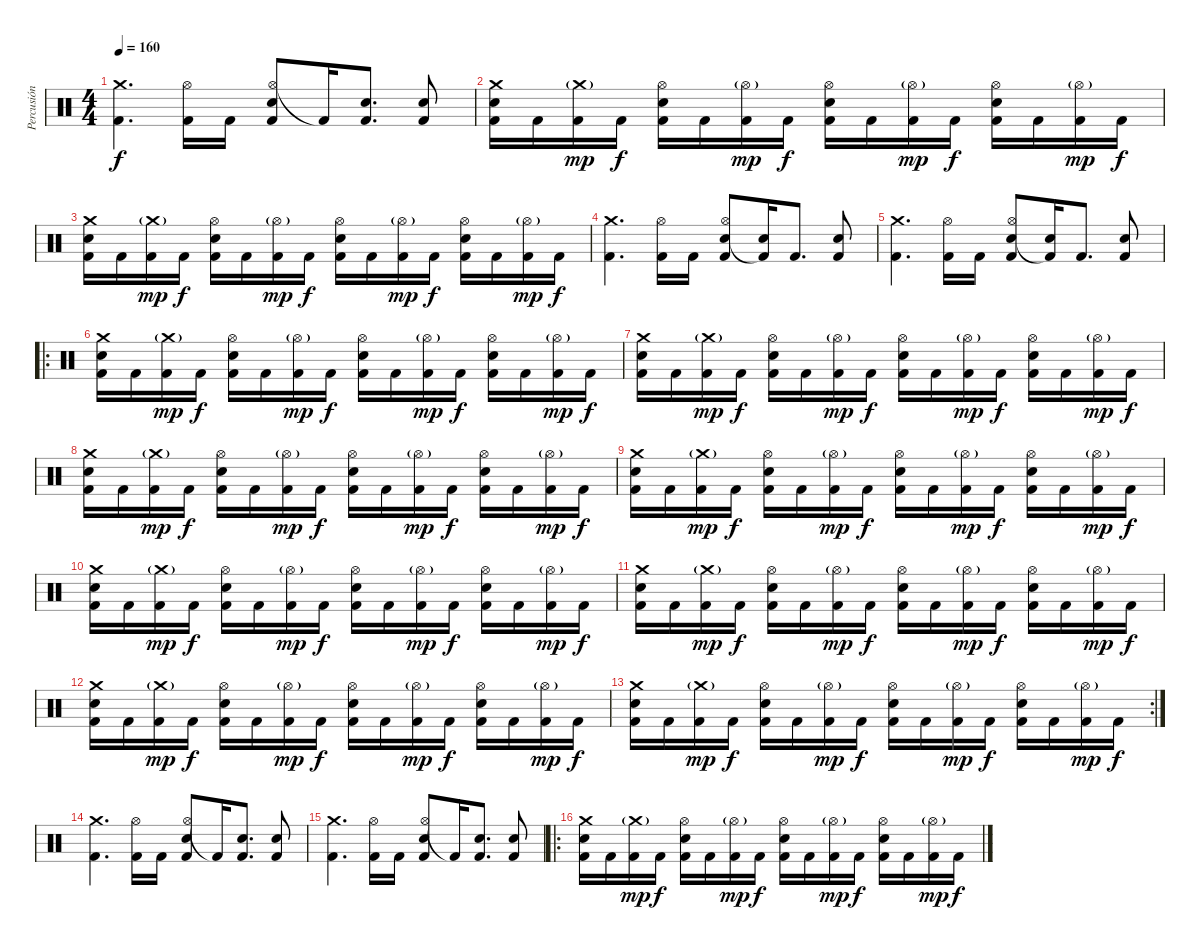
\track ("Percusión" "Percusión") {instrument percussion}
\staff {score}
\articulation defaults
\ts (4 4)
\tempo 160
\clef neutral
\ks c
("Crash medium (hit)" "Kick (hit) 2").4{d dy f} ("Hi-Hat (open)" "Kick (hit) 2").16 "Kick (hit) 2".16 ("Hi-Hat (open)" "Electric Snare (hit)" "Kick (hit) 2").8 "Kick (hit) 2"{t}.16 ("Snare (hit) 2" "Kick (hit) 2").8{d} ("Snare (hit) 2" "Kick (hit) 2").8 |
("Crash medium (hit)" "Electric Snare (hit)" "Kick (hit) 2").16 "Kick (hit) 2".16 ("Crash medium (hit)"{g} "Kick (hit) 2").16{dy mp} "Kick (hit) 2".16{dy f} ("Hi-Hat (open)" "Electric Snare (hit)" "Kick (hit) 2").16 "Kick (hit) 2".16 ("Hi-Hat (open)"{g} "Kick (hit) 2").16{dy mp} "Kick (hit) 2".16{dy f} ("Hi-Hat (open)" "Electric Snare (hit)" "Kick (hit) 2").16 "Kick (hit) 2".16 ("Hi-Hat (open)"{g} "Kick (hit) 2").16{dy mp} "Kick (hit) 2".16{dy f} ("Hi-Hat (open)" "Electric Snare (hit)" "Kick (hit) 2").16 "Kick (hit) 2".16 ("Hi-Hat (open)"{g} "Kick (hit) 2").16{dy mp} "Kick (hit) 2".16{dy f} |
("Crash medium (hit)" "Electric Snare (hit)" "Kick (hit) 2").16 "Kick (hit) 2".16 ("Crash medium (hit)"{g} "Kick (hit) 2").16{dy mp} "Kick (hit) 2".16{dy f} ("Hi-Hat (open)" "Electric Snare (hit)" "Kick (hit) 2").16 "Kick (hit) 2".16 ("Hi-Hat (open)"{g} "Kick (hit) 2").16{dy mp} "Kick (hit) 2".16{dy f} ("Hi-Hat (open)" "Electric Snare (hit)" "Kick (hit) 2").16 "Kick (hit) 2".16 ("Hi-Hat (open)"{g} "Kick (hit) 2").16{dy mp} "Kick (hit) 2".16{dy f} ("Hi-Hat (open)" "Electric Snare (hit)" "Kick (hit) 2").16 "Kick (hit) 2".16 ("Hi-Hat (open)"{g} "Kick (hit) 2").16{dy mp} "Kick (hit) 2".16{dy f} |
("Crash medium (hit)" "Kick (hit) 2").4{d} ("Hi-Hat (open)" "Kick (hit) 2").16 "Kick (hit) 2".16 ("Hi-Hat (open)" "Electric Snare (hit)" "Kick (hit) 2").8 ("Electric Snare (hit)" "Kick (hit) 2"{t}).16 "Kick (hit) 2".8{d} ("Snare (hit) 2" "Kick (hit) 2").8 |
("Crash medium (hit)" "Kick (hit) 2").4{d} ("Hi-Hat (open)" "Kick (hit) 2").16 "Kick (hit) 2".16 ("Hi-Hat (open)" "Electric Snare (hit)" "Kick (hit) 2").8 ("Electric Snare (hit)" "Kick (hit) 2"{t}).16 "Kick (hit) 2".8{d} ("Snare (hit) 2" "Kick (hit) 2").8 |
\ro
("Crash medium (hit)" "Electric Snare (hit)" "Kick (hit) 2").16 "Kick (hit) 2".16 ("Crash medium (hit)"{g} "Kick (hit) 2").16{dy mp} "Kick (hit) 2".16{dy f} ("Hi-Hat (open)" "Electric Snare (hit)" "Kick (hit) 2").16 "Kick (hit) 2".16 ("Hi-Hat (open)"{g} "Kick (hit) 2").16{dy mp} "Kick (hit) 2".16{dy f} ("Hi-Hat (open)" "Electric Snare (hit)" "Kick (hit) 2").16 "Kick (hit) 2".16 ("Hi-Hat (open)"{g} "Kick (hit) 2").16{dy mp} "Kick (hit) 2".16{dy f} ("Hi-Hat (open)" "Electric Snare (hit)" "Kick (hit) 2").16 "Kick (hit) 2".16 ("Hi-Hat (open)"{g} "Kick (hit) 2").16{dy mp} "Kick (hit) 2".16{dy f} |
("Crash medium (hit)" "Electric Snare (hit)" "Kick (hit) 2").16 "Kick (hit) 2".16 ("Crash medium (hit)"{g} "Kick (hit) 2").16{dy mp} "Kick (hit) 2".16{dy f} ("Hi-Hat (open)" "Electric Snare (hit)" "Kick (hit) 2").16 "Kick (hit) 2".16 ("Hi-Hat (open)"{g} "Kick (hit) 2").16{dy mp} "Kick (hit) 2".16{dy f} ("Hi-Hat (open)" "Electric Snare (hit)" "Kick (hit) 2").16 "Kick (hit) 2".16 ("Hi-Hat (open)"{g} "Kick (hit) 2").16{dy mp} "Kick (hit) 2".16{dy f} ("Hi-Hat (open)" "Electric Snare (hit)" "Kick (hit) 2").16 "Kick (hit) 2".16 ("Hi-Hat (open)"{g} "Kick (hit) 2").16{dy mp} "Kick (hit) 2".16{dy f} |
("Crash medium (hit)" "Electric Snare (hit)" "Kick (hit) 2").16 "Kick (hit) 2".16 ("Crash medium (hit)"{g} "Kick (hit) 2").16{dy mp} "Kick (hit) 2".16{dy f} ("Hi-Hat (open)" "Electric Snare (hit)" "Kick (hit) 2").16 "Kick (hit) 2".16 ("Hi-Hat (open)"{g} "Kick (hit) 2").16{dy mp} "Kick (hit) 2".16{dy f} ("Hi-Hat (open)" "Electric Snare (hit)" "Kick (hit) 2").16 "Kick (hit) 2".16 ("Hi-Hat (open)"{g} "Kick (hit) 2").16{dy mp} "Kick (hit) 2".16{dy f} ("Hi-Hat (open)" "Electric Snare (hit)" "Kick (hit) 2").16 "Kick (hit) 2".16 ("Hi-Hat (open)"{g} "Kick (hit) 2").16{dy mp} "Kick (hit) 2".16{dy f} |
("Crash medium (hit)" "Electric Snare (hit)" "Kick (hit) 2").16 "Kick (hit) 2".16 ("Crash medium (hit)"{g} "Kick (hit) 2").16{dy mp} "Kick (hit) 2".16{dy f} ("Hi-Hat (open)" "Electric Snare (hit)" "Kick (hit) 2").16 "Kick (hit) 2".16 ("Hi-Hat (open)"{g} "Kick (hit) 2").16{dy mp} "Kick (hit) 2".16{dy f} ("Hi-Hat (open)" "Electric Snare (hit)" "Kick (hit) 2").16 "Kick (hit) 2".16 ("Hi-Hat (open)"{g} "Kick (hit) 2").16{dy mp} "Kick (hit) 2".16{dy f} ("Hi-Hat (open)" "Electric Snare (hit)" "Kick (hit) 2").16 "Kick (hit) 2".16 ("Hi-Hat (open)"{g} "Kick (hit) 2").16{dy mp} "Kick (hit) 2".16{dy f} |
("Crash medium (hit)" "Electric Snare (hit)" "Kick (hit) 2").16 "Kick (hit) 2".16 ("Crash medium (hit)"{g} "Kick (hit) 2").16{dy mp} "Kick (hit) 2".16{dy f} ("Hi-Hat (open)" "Electric Snare (hit)" "Kick (hit) 2").16 "Kick (hit) 2".16 ("Hi-Hat (open)"{g} "Kick (hit) 2").16{dy mp} "Kick (hit) 2".16{dy f} ("Hi-Hat (open)" "Electric Snare (hit)" "Kick (hit) 2").16 "Kick (hit) 2".16 ("Hi-Hat (open)"{g} "Kick (hit) 2").16{dy mp} "Kick (hit) 2".16{dy f} ("Hi-Hat (open)" "Electric Snare (hit)" "Kick (hit) 2").16 "Kick (hit) 2".16 ("Hi-Hat (open)"{g} "Kick (hit) 2").16{dy mp} "Kick (hit) 2".16{dy f} |
("Crash medium (hit)" "Electric Snare (hit)" "Kick (hit) 2").16 "Kick (hit) 2".16 ("Crash medium (hit)"{g} "Kick (hit) 2").16{dy mp} "Kick (hit) 2".16{dy f} ("Hi-Hat (open)" "Electric Snare (hit)" "Kick (hit) 2").16 "Kick (hit) 2".16 ("Hi-Hat (open)"{g} "Kick (hit) 2").16{dy mp} "Kick (hit) 2".16{dy f} ("Hi-Hat (open)" "Electric Snare (hit)" "Kick (hit) 2").16 "Kick (hit) 2".16 ("Hi-Hat (open)"{g} "Kick (hit) 2").16{dy mp} "Kick (hit) 2".16{dy f} ("Hi-Hat (open)" "Electric Snare (hit)" "Kick (hit) 2").16 "Kick (hit) 2".16 ("Hi-Hat (open)"{g} "Kick (hit) 2").16{dy mp} "Kick (hit) 2".16{dy f} |
("Crash medium (hit)" "Electric Snare (hit)" "Kick (hit) 2").16 "Kick (hit) 2".16 ("Crash medium (hit)"{g} "Kick (hit) 2").16{dy mp} "Kick (hit) 2".16{dy f} ("Hi-Hat (open)" "Electric Snare (hit)" "Kick (hit) 2").16 "Kick (hit) 2".16 ("Hi-Hat (open)"{g} "Kick (hit) 2").16{dy mp} "Kick (hit) 2".16{dy f} ("Hi-Hat (open)" "Electric Snare (hit)" "Kick (hit) 2").16 "Kick (hit) 2".16 ("Hi-Hat (open)"{g} "Kick (hit) 2").16{dy mp} "Kick (hit) 2".16{dy f} ("Hi-Hat (open)" "Electric Snare (hit)" "Kick (hit) 2").16 "Kick (hit) 2".16 ("Hi-Hat (open)"{g} "Kick (hit) 2").16{dy mp} "Kick (hit) 2".16{dy f} |
\rc 2
("Crash medium (hit)" "Electric Snare (hit)" "Kick (hit) 2").16 "Kick (hit) 2".16 ("Crash medium (hit)"{g} "Kick (hit) 2").16{dy mp} "Kick (hit) 2".16{dy f} ("Hi-Hat (open)" "Electric Snare (hit)" "Kick (hit) 2").16 "Kick (hit) 2".16 ("Hi-Hat (open)"{g} "Kick (hit) 2").16{dy mp} "Kick (hit) 2".16{dy f} ("Hi-Hat (open)" "Electric Snare (hit)" "Kick (hit) 2").16 "Kick (hit) 2".16 ("Hi-Hat (open)"{g} "Kick (hit) 2").16{dy mp} "Kick (hit) 2".16{dy f} ("Hi-Hat (open)" "Electric Snare (hit)" "Kick (hit) 2").16 "Kick (hit) 2".16 ("Hi-Hat (open)"{g} "Kick (hit) 2").16{dy mp} "Kick (hit) 2".16{dy f} |
("Crash medium (hit)" "Kick (hit) 2").4{d} ("Hi-Hat (open)" "Kick (hit) 2").16 "Kick (hit) 2".16 ("Hi-Hat (open)" "Electric Snare (hit)" "Kick (hit) 2").8 "Kick (hit) 2"{t}.16 ("Snare (hit) 2" "Kick (hit) 2").8{d} ("Snare (hit) 2" "Kick (hit) 2").8 |
("Crash medium (hit)" "Kick (hit) 2").4{d} ("Hi-Hat (open)" "Kick (hit) 2").16 "Kick (hit) 2".16 ("Hi-Hat (open)" "Electric Snare (hit)" "Kick (hit) 2").8 "Kick (hit) 2"{t}.16 ("Snare (hit) 2" "Kick (hit) 2").8{d} ("Snare (hit) 2" "Kick (hit) 2").8 |
\ro
("Crash medium (hit)" "Electric Snare (hit)" "Kick (hit) 2").16 "Kick (hit) 2".16 ("Crash medium (hit)"{g} "Kick (hit) 2").16{dy mp} "Kick (hit) 2".16{dy f} ("Hi-Hat (open)" "Electric Snare (hit)" "Kick (hit) 2").16 "Kick (hit) 2".16 ("Hi-Hat (open)"{g} "Kick (hit) 2").16{dy mp} "Kick (hit) 2".16{dy f} ("Hi-Hat (open)" "Electric Snare (hit)" "Kick (hit) 2").16 "Kick (hit) 2".16 ("Hi-Hat (open)"{g} "Kick (hit) 2").16{dy mp} "Kick (hit) 2".16{dy f} ("Hi-Hat (open)" "Electric Snare (hit)" "Kick (hit) 2").16 "Kick (hit) 2".16 ("Hi-Hat (open)"{g} "Kick (hit) 2").16{dy mp} "Kick (hit) 2".16{dy f}
